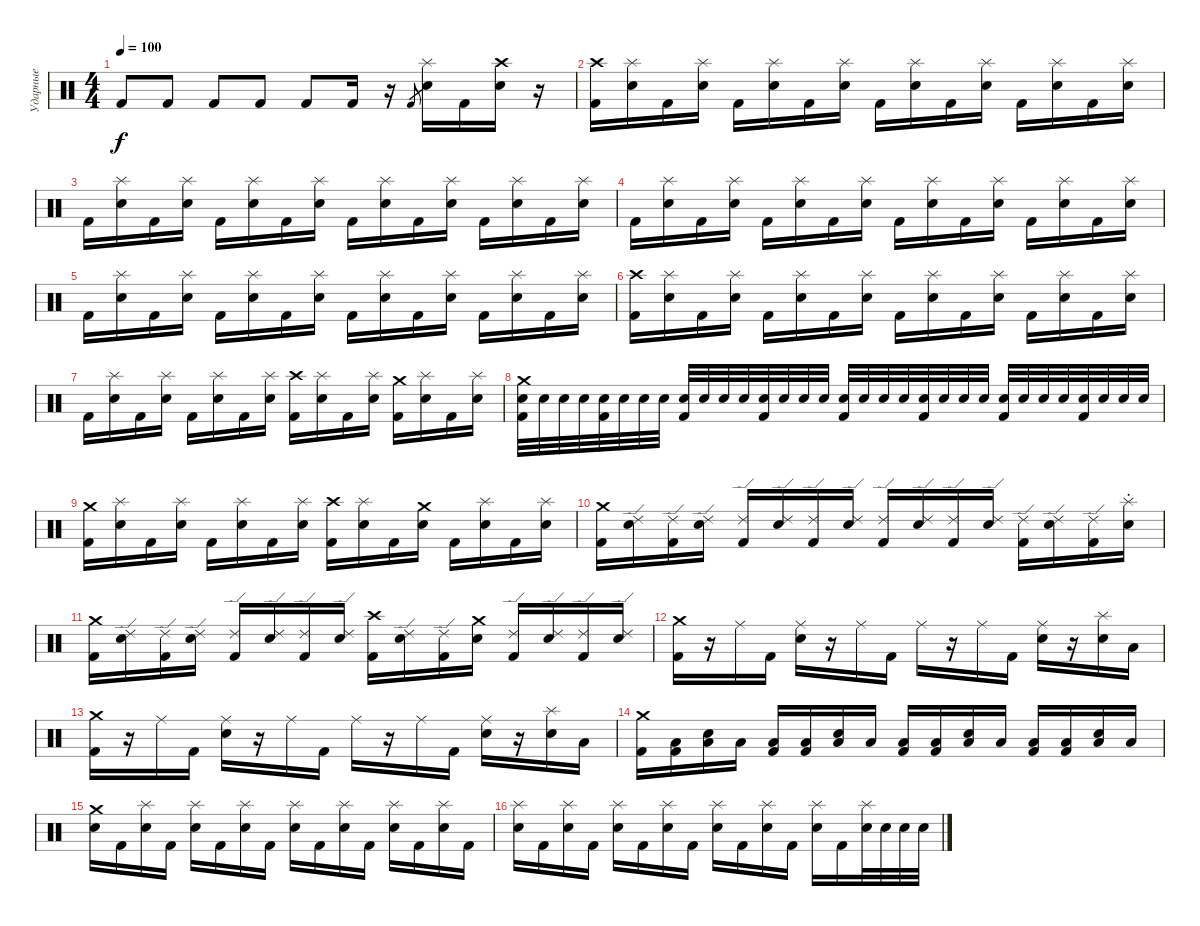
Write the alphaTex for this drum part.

\track ("Ударные" "Ударные") {instrument percussion}
\staff {score}
\articulation defaults
\ts (4 4)
\tempo 100
\clef neutral
\ks c "Kick (hit) 2".8{dy f} "Kick (hit) 2".8 "Kick (hit) 2".8 "Kick (hit) 2".8 "Kick (hit) 2".8 "Kick (hit) 2".16
r.16 "Kick (hit) 2".8{gr} ("Splash (hit)" "Electric Snare (hit)").16 "Kick (hit) 2".16 ("Crash high (hit)" "Electric Snare (hit)").16 r.16 |
("Crash high (hit)" "Kick (hit) 2").16 ("Splash (hit)" "Electric Snare (hit)").16 "Kick (hit) 2".16 ("Splash (hit)" "Electric Snare (hit)").16 "Kick (hit) 2".16 ("Splash (hit)" "Electric Snare (hit)").16 "Kick (hit) 2".16 ("Splash (hit)" "Electric Snare (hit)").16 "Kick (hit) 2".16 ("Splash (hit)" "Electric Snare (hit)").16 "Kick (hit) 2".16 ("Splash (hit)" "Electric Snare (hit)").16 "Kick (hit) 2".16 ("Splash (hit)" "Electric Snare (hit)").16 "Kick (hit) 2".16 ("Splash (hit)" "Electric Snare (hit)").16 |
"Kick (hit) 2".16 ("Splash (hit)" "Electric Snare (hit)").16 "Kick (hit) 2".16 ("Splash (hit)" "Electric Snare (hit)").16 "Kick (hit) 2".16 ("Splash (hit)" "Electric Snare (hit)").16 "Kick (hit) 2".16 ("Splash (hit)" "Electric Snare (hit)").16 "Kick (hit) 2".16 ("Splash (hit)" "Electric Snare (hit)").16 "Kick (hit) 2".16 ("Splash (hit)" "Electric Snare (hit)").16 "Kick (hit) 2".16 ("Splash (hit)" "Electric Snare (hit)").16 "Kick (hit) 2".16 ("Splash (hit)" "Electric Snare (hit)").16 |
"Kick (hit) 2".16 ("Splash (hit)" "Electric Snare (hit)").16 "Kick (hit) 2".16 ("Splash (hit)" "Electric Snare (hit)").16 "Kick (hit) 2".16 ("Splash (hit)" "Electric Snare (hit)").16 "Kick (hit) 2".16 ("Splash (hit)" "Electric Snare (hit)").16 "Kick (hit) 2".16 ("Splash (hit)" "Electric Snare (hit)").16 "Kick (hit) 2".16 ("Splash (hit)" "Electric Snare (hit)").16 "Kick (hit) 2".16 ("Splash (hit)" "Electric Snare (hit)").16 "Kick (hit) 2".16 ("Splash (hit)" "Electric Snare (hit)").16 |
"Kick (hit) 2".16 ("Splash (hit)" "Electric Snare (hit)").16 "Kick (hit) 2".16 ("Splash (hit)" "Electric Snare (hit)").16 "Kick (hit) 2".16 ("Splash (hit)" "Electric Snare (hit)").16 "Kick (hit) 2".16 ("Splash (hit)" "Electric Snare (hit)").16 "Kick (hit) 2".16 ("Splash (hit)" "Electric Snare (hit)").16 "Kick (hit) 2".16 ("Splash (hit)" "Electric Snare (hit)").16 "Kick (hit) 2".16 ("Splash (hit)" "Electric Snare (hit)").16 "Kick (hit) 2".16 ("Splash (hit)" "Electric Snare (hit)").16 |
("Crash high (hit)" "Kick (hit) 2").16 ("Splash (hit)" "Electric Snare (hit)").16 "Kick (hit) 2".16 ("Splash (hit)" "Electric Snare (hit)").16 "Kick (hit) 2".16 ("Splash (hit)" "Electric Snare (hit)").16 "Kick (hit) 2".16 ("Splash (hit)" "Electric Snare (hit)").16 "Kick (hit) 2".16 ("Splash (hit)" "Electric Snare (hit)").16 "Kick (hit) 2".16 ("Splash (hit)" "Electric Snare (hit)").16 "Kick (hit) 2".16 ("Splash (hit)" "Electric Snare (hit)").16 "Kick (hit) 2".16 ("Splash (hit)" "Electric Snare (hit)").16 |
"Kick (hit) 2".16 ("Splash (hit)" "Electric Snare (hit)").16 "Kick (hit) 2".16 ("Splash (hit)" "Electric Snare (hit)").16 "Kick (hit) 2".16 ("Splash (hit)" "Electric Snare (hit)").16 "Kick (hit) 2".16 ("Splash (hit)" "Electric Snare (hit)").16 ("Crash high (hit)" "Kick (hit) 2").16 ("Splash (hit)" "Electric Snare (hit)").16 "Kick (hit) 2".16 ("Splash (hit)" "Electric Snare (hit)").16 ("Crash medium (hit)" "Kick (hit) 2").16 ("Splash (hit)" "Electric Snare (hit)").16 "Kick (hit) 2".16 ("Splash (hit)" "Electric Snare (hit)").16 |
("Crash medium (hit)" "Electric Snare (hit)" "Kick (hit) 2").32 "Electric Snare (hit)".32 "Electric Snare (hit)".32 "Electric Snare (hit)".32 ("Electric Snare (hit)" "Kick (hit) 2").32 "Electric Snare (hit)".32 "Electric Snare (hit)".32 "Electric Snare (hit)".32 ("Electric Snare (hit)" "Kick (hit) 2").32 "Electric Snare (hit)".32 "Electric Snare (hit)".32 "Electric Snare (hit)".32 ("Electric Snare (hit)" "Kick (hit) 2").32 "Electric Snare (hit)".32 "Electric Snare (hit)".32 "Electric Snare (hit)".32 ("Electric Snare (hit)" "Kick (hit) 2").32 "Electric Snare (hit)".32 "Electric Snare (hit)".32 "Electric Snare (hit)".32 ("Electric Snare (hit)" "Kick (hit) 2").32 "Electric Snare (hit)".32 "Electric Snare (hit)".32 "Electric Snare (hit)".32 ("Electric Snare (hit)" "Kick (hit) 2").32 "Electric Snare (hit)".32 "Electric Snare (hit)".32 "Electric Snare (hit)".32 ("Electric Snare (hit)" "Kick (hit) 2").32 "Electric Snare (hit)".32 "Electric Snare (hit)".32 "Electric Snare (hit)".32 |
("Crash medium (hit)" "Kick (hit) 2").16 ("Splash (hit)" "Electric Snare (hit)").16 "Kick (hit) 2".16 ("Splash (hit)" "Electric Snare (hit)").16 "Kick (hit) 2".16 ("Splash (hit)" "Electric Snare (hit)").16 "Kick (hit) 2".16 ("Splash (hit)" "Electric Snare (hit)").16 ("Crash high (hit)" "Kick (hit) 2").16 ("Splash (hit)" "Electric Snare (hit)").16 "Kick (hit) 2".16 ("Crash medium (hit)" "Electric Snare (hit)").16 "Kick (hit) 2".16 ("Splash (hit)" "Electric Snare (hit)").16 "Kick (hit) 2".16 ("Splash (hit)" "Electric Snare (hit)").16 |
("Crash medium (hit)" "Kick (hit) 2").16 ("Ride (edge) 2" "Electric Snare (hit)").16 ("Ride (edge) 2" "Kick (hit) 2").16 ("Ride (edge) 2" "Electric Snare (hit)").16 ("Ride (edge) 2" "Kick (hit) 2").16 ("Ride (edge) 2" "Electric Snare (hit)").16 ("Ride (edge) 2" "Kick (hit) 2").16 ("Ride (edge) 2" "Electric Snare (hit)").16 ("Ride (edge) 2" "Kick (hit) 2").16 ("Ride (edge) 2" "Electric Snare (hit)").16 ("Ride (edge) 2" "Kick (hit) 2").16 ("Ride (edge) 2" "Electric Snare (hit)").16 ("Ride (edge) 2" "Kick (hit) 2").16 ("Ride (edge) 2" "Electric Snare (hit)").16 ("Ride (edge) 2" "Kick (hit) 2").16 ("Splash (choke)" "Electric Snare (hit)").16 |
("Crash medium (hit)" "Kick (hit) 2").16 ("Ride (edge) 2" "Electric Snare (hit)").16 ("Ride (edge) 2" "Kick (hit) 2").16 ("Ride (edge) 2" "Electric Snare (hit)").16 ("Ride (edge) 2" "Kick (hit) 2").16 ("Ride (edge) 2" "Electric Snare (hit)").16 ("Ride (edge) 2" "Kick (hit) 2").16 ("Ride (edge) 2" "Electric Snare (hit)").16 ("Crash high (hit)" "Kick (hit) 2").16 ("Ride (edge) 2" "Electric Snare (hit)").16 ("Ride (edge) 2" "Kick (hit) 2").16 ("Crash medium (hit)" "Electric Snare (hit)").16 ("Ride (edge) 2" "Kick (hit) 2").16 ("Ride (edge) 2" "Electric Snare (hit)").16 ("Ride (edge) 2" "Kick (hit) 2").16 ("Ride (edge) 2" "Electric Snare (hit)").16 |
("Crash medium (hit)" "Kick (hit) 2").16 r.16 "Ride (middle)".16 "Kick (hit) 2".16 ("Ride (middle)" "Electric Snare (hit)").16 r.16 "Ride (middle)".16 "Kick (hit) 2".16 "Ride (middle)".16 r.16 "Ride (middle)".16 "Kick (hit) 2".16 ("Ride (middle)" "Electric Snare (hit)").16 r.16 ("Splash (hit)" "Electric Snare (hit)").16 "Low Tom (hit)".16 |
("Crash medium (hit)" "Kick (hit) 2").16 r.16 "Ride (middle)".16 "Kick (hit) 2".16 ("Ride (middle)" "Electric Snare (hit)").16 r.16 "Ride (middle)".16 "Kick (hit) 2".16 "Ride (middle)".16 r.16 "Ride (middle)".16 "Kick (hit) 2".16 ("Ride (middle)" "Electric Snare (hit)").16 r.16 ("Splash (hit)" "Electric Snare (hit)").16 "Low Tom (hit)".16 |
("Crash medium (hit)" "Kick (hit) 2").16 ("Low Floor Tom (hit)" "Kick (hit) 2").16 ("Low Floor Tom (hit)" "Electric Snare (hit)").16 "Low Floor Tom (hit)".16 ("Low Floor Tom (hit)" "Kick (hit) 2").16 ("Low Floor Tom (hit)" "Kick (hit) 2").16 ("Low Floor Tom (hit)" "Electric Snare (hit)").16 "Low Floor Tom (hit)".16 ("Low Floor Tom (hit)" "Kick (hit) 2").16 ("Low Floor Tom (hit)" "Kick (hit) 2").16 ("Low Floor Tom (hit)" "Electric Snare (hit)").16 "Low Floor Tom (hit)".16 ("Low Floor Tom (hit)" "Kick (hit) 2").16 ("Low Floor Tom (hit)" "Kick (hit) 2").16 ("Low Floor Tom (hit)" "Electric Snare (hit)").16 "Low Floor Tom (hit)".16 |
("Crash medium (hit)" "Electric Snare (hit)").16 "Kick (hit) 2".16 ("Splash (hit)" "Electric Snare (hit)").16 "Kick (hit) 2".16 ("Splash (hit)" "Electric Snare (hit)").16 "Kick (hit) 2".16 ("Splash (hit)" "Electric Snare (hit)").16 "Kick (hit) 2".16 ("Splash (hit)" "Electric Snare (hit)").16 "Kick (hit) 2".16 ("Splash (hit)" "Electric Snare (hit)").16 "Kick (hit) 2".16 ("Splash (hit)" "Electric Snare (hit)").16 "Kick (hit) 2".16 ("Splash (hit)" "Electric Snare (hit)").16 "Kick (hit) 2".16 |
("Splash (hit)" "Electric Snare (hit)").16 "Kick (hit) 2".16 ("Splash (hit)" "Electric Snare (hit)").16 "Kick (hit) 2".16 ("Splash (hit)" "Electric Snare (hit)").16 "Kick (hit) 2".16 ("Splash (hit)" "Electric Snare (hit)").16 "Kick (hit) 2".16 ("Splash (hit)" "Electric Snare (hit)").16 "Kick (hit) 2".16 ("Splash (hit)" "Electric Snare (hit)").16 "Kick (hit) 2".16 ("Splash (hit)" "Electric Snare (hit)").16 "Kick (hit) 2".16 ("Splash (hit)" "Electric Snare (hit)").32 "Electric Snare (hit)".32 "Electric Snare (hit)".32 "Electric Snare (hit)".32
